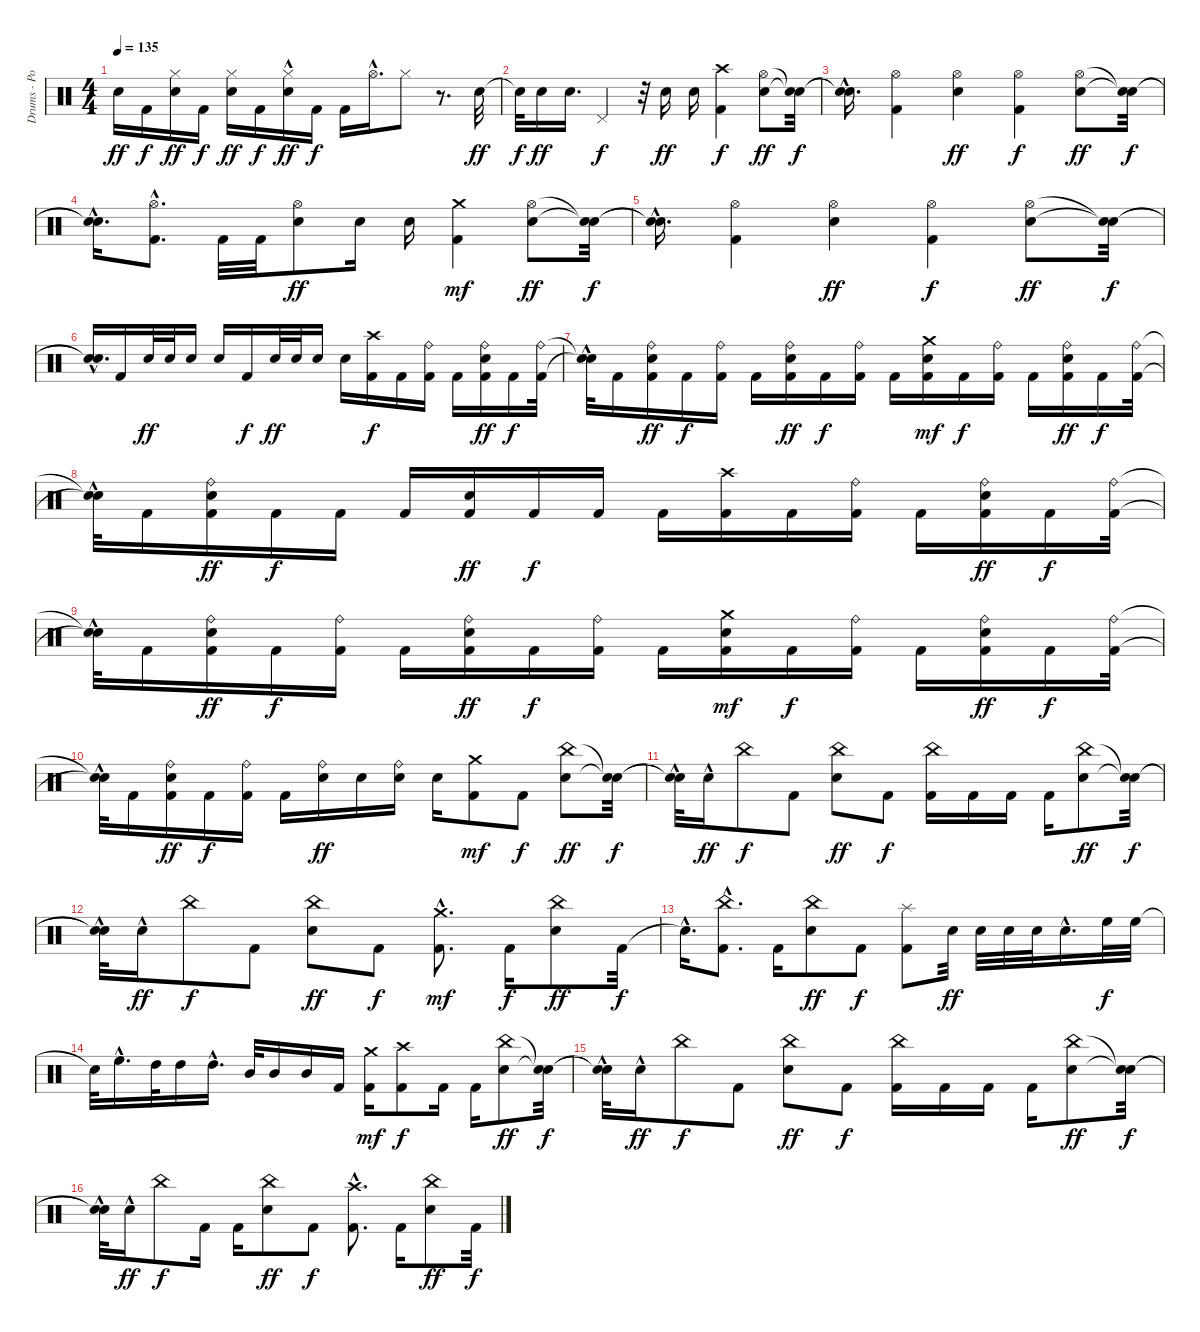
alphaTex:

\track ("Drums - Portnoy" "Drums - Po") {instrument percussion}
\staff {score}
\articulation defaults
\ts (4 4)
\tempo 135
\clef neutral
\ks c "Electric Snare (hit)".16{dy ff} "Kick (hit) 2".16{dy f}
("Hi-Hat (closed)" "Electric Snare (hit)").16{dy ff} "Kick (hit) 2".16{dy f} ("Hi-Hat (closed)" "Electric Snare (hit)").16{dy ff} "Kick (hit) 2".16{dy f} ("Hi-Hat (closed)"{hac} "Electric Snare (hit)"{hac}).16{dy ff} "Kick (hit) 2".16{dy f} "Kick (hit) 2".16 "Hi-Hat (open)"{hac}.16{d} "Hi-Hat (closed)".8 r.8{d} "Electric Snare (hit)".32{dy ff} |
"Snare (hit)"{t}.32{dy f} "Electric Snare (hit)".16{dy ff} "Electric Snare (hit)".16{d} "Pedal Hi-Hat (hit)".4{dy f} r.32 "Electric Snare (hit)".16{dy ff} "Electric Snare (hit)".16 ("Crash high (hit)" "Kick (hit) 2").4{dy f} ("Hi-Hat (open)" "Electric Snare (hit)").8{dy ff} ("Snare (hit)"{t} "Snare (hit)"{t}).32{dy f} |
("Snare (hit)"{hac t} "Snare (hit)"{hac t}).16{d} ("Kick (hit) 2" "Hi-Hat (open)").4 ("Hi-Hat (open)" "Electric Snare (hit)").4{dy ff} ("Hi-Hat (open)" "Kick (hit) 2").4{dy f} ("Hi-Hat (open)" "Electric Snare (hit)").8{dy ff} ("Snare (hit)"{t} "Snare (hit)"{t}).32{dy f} |
("Snare (hit)"{hac t} "Snare (hit)"{hac t}).16{d} ("Hi-Hat (open)" "Kick (hit) 2"{hac}).8{d} "Kick (hit) 2".32 "Kick (hit) 2".32 ("Hi-Hat (open)" "Electric Snare (hit)").8{dy ff} "Electric Snare (hit)".16 "Electric Snare (hit)".16 ("Kick (hit) 2" "Crash medium (hit)").4{dy mf} ("Hi-Hat (open)" "Electric Snare (hit)").8{dy ff} ("Snare (hit)"{t} "Snare (hit)"{t}).32{dy f} |
("Snare (hit)"{hac t} "Snare (hit)"{hac t}).16{d} ("Kick (hit) 2" "Hi-Hat (open)").4 ("Hi-Hat (open)" "Electric Snare (hit)").4{dy ff} ("Hi-Hat (open)" "Kick (hit) 2").4{dy f} ("Hi-Hat (open)" "Electric Snare (hit)").8{dy ff} ("Snare (hit)"{t} "Snare (hit)"{t}).32{dy f} |
("Snare (hit)"{hac t} "Snare (hit)"{hac t}).16{d} "Kick (hit) 2".16 "Electric Snare (hit)".32{dy ff} "Electric Snare (hit)".32 "Electric Snare (hit)".16 "Electric Snare (hit)".16 "Kick (hit) 2".16{dy f} "Electric Snare (hit)".32{dy ff} "Electric Snare (hit)".32 "Electric Snare (hit)".16 "Electric Snare (hit)".16 ("Kick (hit) 2" "Crash high (hit)").16{dy f} "Kick (hit) 2".16 ("Kick (hit) 2" "Ride (bell)").16 "Kick (hit) 2".16 ("Kick (hit) 2" "Ride (bell)" "Electric Snare (hit)").16{dy ff} "Kick (hit) 2".16{dy f} ("Kick (hit) 2" "Ride (bell)").32 |
("Snare (hit)"{t} "Snare (hit)"{hac t}).32 "Kick (hit) 2".16 ("Kick (hit) 2" "Ride (bell)" "Electric Snare (hit)").16{dy ff} "Kick (hit) 2".16{dy f} ("Kick (hit) 2" "Ride (bell)").16 "Kick (hit) 2".16 ("Kick (hit) 2" "Ride (bell)" "Electric Snare (hit)").16{dy ff} "Kick (hit) 2".16{dy f} ("Kick (hit) 2" "Ride (bell)").16 "Kick (hit) 2".16 ("Kick (hit) 2" "Electric Snare (hit)" "Crash medium (hit)").16{dy mf} "Kick (hit) 2".16{dy f} ("Kick (hit) 2" "Ride (bell)").16 "Kick (hit) 2".16 ("Kick (hit) 2" "Ride (bell)" "Electric Snare (hit)").16{dy ff} "Kick (hit) 2".16{dy f} ("Kick (hit) 2" "Ride (bell)").32 |
("Snare (hit)"{t} "Snare (hit)"{hac t}).32 "Kick (hit) 2".16 ("Kick (hit) 2" "Ride (bell)" "Electric Snare (hit)").16{dy ff} "Kick (hit) 2".16{dy f} "Kick (hit) 2".16 "Kick (hit) 2".16 ("Kick (hit) 2" "Electric Snare (hit)").16{dy ff} "Kick (hit) 2".16{dy f} "Kick (hit) 2".16 "Kick (hit) 2".16 ("Kick (hit) 2" "Crash high (hit)").16 "Kick (hit) 2".16 ("Kick (hit) 2" "Ride (bell)").16 "Kick (hit) 2".16 ("Kick (hit) 2" "Ride (bell)" "Electric Snare (hit)").16{dy ff} "Kick (hit) 2".16{dy f} ("Kick (hit) 2" "Ride (bell)").32 |
("Snare (hit)"{t} "Snare (hit)"{hac t}).32 "Kick (hit) 2".16 ("Kick (hit) 2" "Ride (bell)" "Electric Snare (hit)").16{dy ff} "Kick (hit) 2".16{dy f} ("Kick (hit) 2" "Ride (bell)").16 "Kick (hit) 2".16 ("Kick (hit) 2" "Ride (bell)" "Electric Snare (hit)").16{dy ff} "Kick (hit) 2".16{dy f} ("Kick (hit) 2" "Ride (bell)").16 "Kick (hit) 2".16 ("Kick (hit) 2" "Electric Snare (hit)" "Crash medium (hit)").16{dy mf} "Kick (hit) 2".16{dy f} ("Kick (hit) 2" "Ride (bell)").16 "Kick (hit) 2".16 ("Kick (hit) 2" "Ride (bell)" "Electric Snare (hit)").16{dy ff} "Kick (hit) 2".16{dy f} ("Kick (hit) 2" "Ride (bell)").32 |
("Snare (hit)"{t} "Snare (hit)"{hac t}).32 "Kick (hit) 2".16 ("Kick (hit) 2" "Ride (bell)" "Electric Snare (hit)").16{dy ff} "Kick (hit) 2".16{dy f} ("Kick (hit) 2" "Ride (bell)").16 "Kick (hit) 2".16 ("Ride (bell)" "Electric Snare (hit)").16{dy ff} "Electric Snare (hit)".16 ("Ride (bell)" "Electric Snare (hit)").16 "Electric Snare (hit)".16 ("Kick (hit) 2" "Crash medium (hit)").8{dy mf} "Kick (hit) 2".8{dy f} ("Electric Snare (hit)" "China (hit)").8{dy ff} ("Snare (hit)"{t} "Snare (hit)"{t}).32{dy f} |
("Snare (hit)"{t} "Snare (hit)"{hac t}).32 "Electric Snare (hit)"{hac}.16{dy ff} "China (hit)".8{dy f} "Kick (hit) 2".8 ("Electric Snare (hit)" "China (hit)").8{dy ff} "Kick (hit) 2".8{dy f} ("Kick (hit) 2" "China (hit)").16 "Kick (hit) 2".16 "Kick (hit) 2".16 "Kick (hit) 2".16 ("Electric Snare (hit)" "China (hit)").8{dy ff} ("Snare (hit)"{t} "Snare (hit)"{t}).32{dy f} |
("Snare (hit)"{t} "Snare (hit)"{hac t}).32 "Electric Snare (hit)"{hac}.16{dy ff} "China (hit)".8{dy f} "Kick (hit) 2".8 ("Electric Snare (hit)" "China (hit)").8{dy ff} "Kick (hit) 2".8{dy f} ("Kick (hit) 2"{hac} "Crash medium (hit)").8{d dy mf} "Kick (hit) 2".16{dy f} ("Electric Snare (hit)" "China (hit)").8{dy ff} "Kick (hit) 2".32{dy f} |
"Snare (hit)"{hac t}.16{d} ("Kick (hit) 2"{hac} "China (hit)").8{d} "Kick (hit) 2".16 ("Electric Snare (hit)" "China (hit)").8{dy ff} "Kick (hit) 2".8{dy f} ("Kick (hit) 2" "Splash (hit)").8 "Electric Snare (hit)".32{dy ff} "Electric Snare (hit)".32 "Electric Snare (hit)".32 "Electric Snare (hit)".32 "Electric Snare (hit)"{hac}.16{d} "High Floor Tom (hit)".32{dy f} "High Floor Tom (hit)".32 |
"Snare (hit)"{t}.32 "High Floor Tom (hit)"{hac}.16{d} "High Tom (hit)".32 "High Tom (hit)".16 "High Tom (hit)"{hac}.16{d} "Mid Tom (hit)".32 "Mid Tom (hit)".16 "Mid Tom (hit)".16 "Kick (hit) 2".16 ("Kick (hit) 2" "Crash medium (hit)").16{dy mf} ("Kick (hit) 2" "Crash high (hit)").8{dy f} "Kick (hit) 2".16 "Kick (hit) 2".16 ("Electric Snare (hit)" "China (hit)").8{dy ff} ("Snare (hit)"{t} "Snare (hit)"{t}).32{dy f} |
("Snare (hit)"{t} "Snare (hit)"{hac t}).32 "Electric Snare (hit)"{hac}.16{dy ff} "China (hit)".8{dy f} "Kick (hit) 2".8 ("Electric Snare (hit)" "China (hit)").8{dy ff} "Kick (hit) 2".8{dy f} ("Kick (hit) 2" "China (hit)").16 "Kick (hit) 2".16 "Kick (hit) 2".16 "Kick (hit) 2".16 ("Electric Snare (hit)" "China (hit)").8{dy ff} ("Snare (hit)"{t} "Snare (hit)"{t}).32{dy f} |
("Snare (hit)"{t} "Snare (hit)"{hac t}).32 "Electric Snare (hit)"{hac}.16{dy ff} "China (hit)".8{dy f} "Kick (hit) 2".16 "Kick (hit) 2".16 ("Electric Snare (hit)" "China (hit)").8{dy ff} "Kick (hit) 2".8{dy f} ("Kick (hit) 2"{hac} "Crash high (hit)").8{d} "Kick (hit) 2".16 ("Electric Snare (hit)" "China (hit)").8{dy ff} "Kick (hit) 2".32{dy f}
